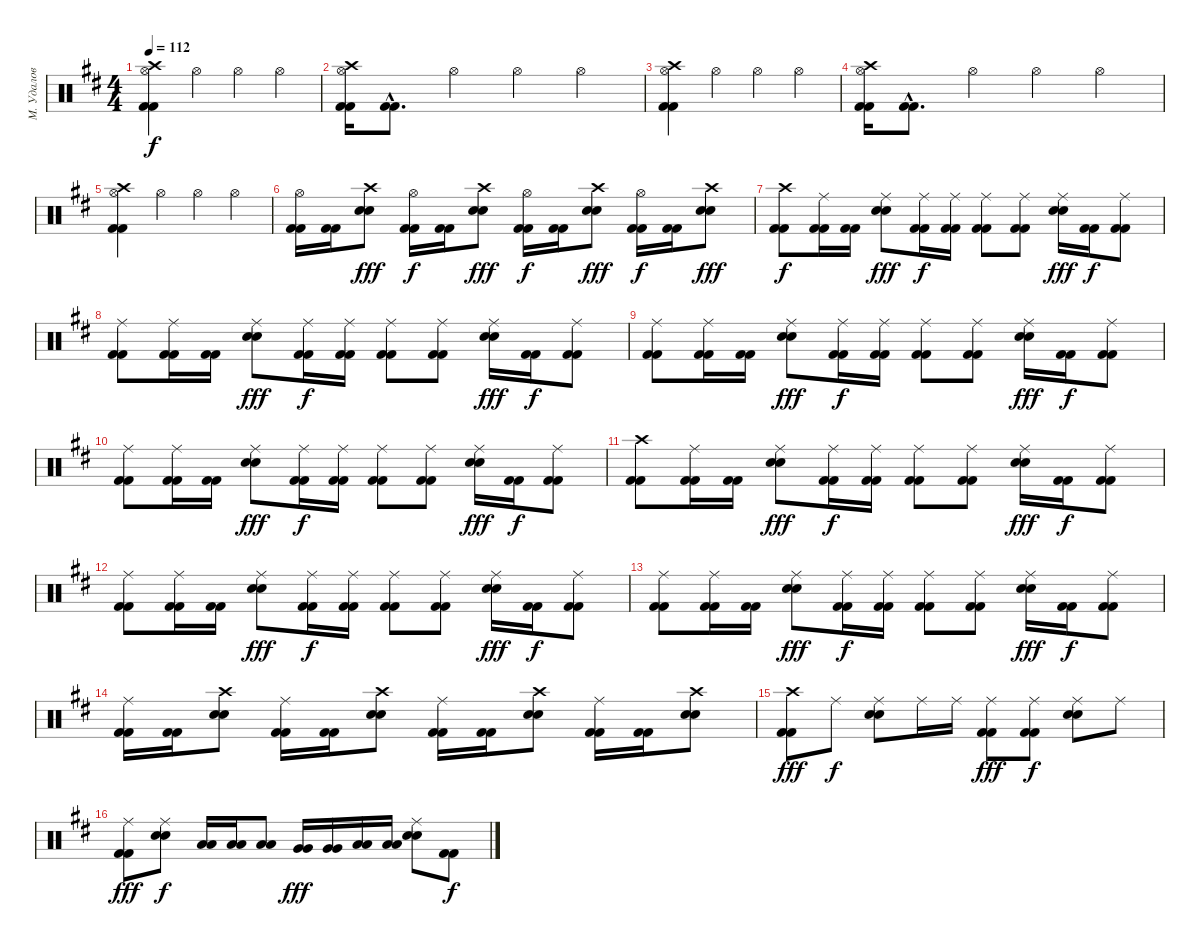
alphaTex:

\track ("М. Удалов" "М. Удалов") {instrument percussion}
\staff {score}
\articulation defaults
\ts (4 4)
\tempo 112
\clef neutral
\ks d
("Crash high (hit)" "Hi-Hat (open)" "Kick (hit) 2" "Kick (hit) 2").4{dy f} "Hi-Hat (open)".4 "Hi-Hat (open)".4 "Hi-Hat (open)".4 |
("Crash high (hit)" "Hi-Hat (open)" "Kick (hit) 2" "Kick (hit) 2").16 ("Kick (hit) 2"{hac} "Kick (hit) 2"{hac}).8{d} "Hi-Hat (open)".4 "Hi-Hat (open)".4 "Hi-Hat (open)".4 |
("Crash high (hit)" "Hi-Hat (open)" "Kick (hit) 2" "Kick (hit) 2").4 "Hi-Hat (open)".4 "Hi-Hat (open)".4 "Hi-Hat (open)".4 |
("Crash high (hit)" "Hi-Hat (open)" "Kick (hit) 2" "Kick (hit) 2").16 ("Kick (hit) 2"{hac} "Kick (hit) 2"{hac}).8{d} "Hi-Hat (open)".4 "Hi-Hat (open)".4 "Hi-Hat (open)".4 |
("Crash high (hit)" "Hi-Hat (open)" "Kick (hit) 2" "Kick (hit) 2").4 "Hi-Hat (open)".4 "Hi-Hat (open)".4 "Hi-Hat (open)".4 |
("Hi-Hat (open)" "Kick (hit) 2" "Kick (hit) 2").16 ("Kick (hit) 2" "Kick (hit) 2").16 ("Crash high (hit)" "Electric Snare (hit)" "Electric Snare (hit)").8{dy fff} ("Hi-Hat (open)" "Kick (hit) 2" "Kick (hit) 2").16{dy f} ("Kick (hit) 2" "Kick (hit) 2").16 ("Crash high (hit)" "Electric Snare (hit)" "Electric Snare (hit)").8{dy fff} ("Hi-Hat (open)" "Kick (hit) 2" "Kick (hit) 2").16{dy f} ("Kick (hit) 2" "Kick (hit) 2").16 ("Crash high (hit)" "Electric Snare (hit)" "Electric Snare (hit)").8{dy fff} ("Hi-Hat (open)" "Kick (hit) 2" "Kick (hit) 2").16{dy f} ("Kick (hit) 2" "Kick (hit) 2").16 ("Crash high (hit)" "Electric Snare (hit)" "Electric Snare (hit)").8{dy fff} |
("Crash high (hit)" "Kick (hit) 2" "Kick (hit) 2").8{dy f} ("Ride (middle)" "Kick (hit) 2" "Kick (hit) 2").16 ("Kick (hit) 2" "Kick (hit) 2").16 ("Ride (middle)" "Electric Snare (hit)" "Electric Snare (hit)").8{dy fff} ("Ride (middle)" "Kick (hit) 2" "Kick (hit) 2").16{dy f} ("Ride (middle)" "Kick (hit) 2" "Kick (hit) 2").16 ("Ride (middle)" "Kick (hit) 2" "Kick (hit) 2").8 ("Ride (middle)" "Kick (hit) 2" "Kick (hit) 2").8 ("Ride (middle)" "Electric Snare (hit)" "Electric Snare (hit)").16{dy fff} ("Kick (hit) 2" "Kick (hit) 2").16{dy f} ("Ride (middle)" "Kick (hit) 2" "Kick (hit) 2").8 |
("Ride (middle)" "Kick (hit) 2" "Kick (hit) 2").8 ("Ride (middle)" "Kick (hit) 2" "Kick (hit) 2").16 ("Kick (hit) 2" "Kick (hit) 2").16 ("Ride (middle)" "Electric Snare (hit)" "Electric Snare (hit)").8{dy fff} ("Ride (middle)" "Kick (hit) 2" "Kick (hit) 2").16{dy f} ("Ride (middle)" "Kick (hit) 2" "Kick (hit) 2").16 ("Ride (middle)" "Kick (hit) 2" "Kick (hit) 2").8 ("Ride (middle)" "Kick (hit) 2" "Kick (hit) 2").8 ("Ride (middle)" "Electric Snare (hit)" "Electric Snare (hit)").16{dy fff} ("Kick (hit) 2" "Kick (hit) 2").16{dy f} ("Ride (middle)" "Kick (hit) 2" "Kick (hit) 2").8 |
("Ride (middle)" "Kick (hit) 2" "Kick (hit) 2").8 ("Ride (middle)" "Kick (hit) 2" "Kick (hit) 2").16 ("Kick (hit) 2" "Kick (hit) 2").16 ("Ride (middle)" "Electric Snare (hit)" "Electric Snare (hit)").8{dy fff} ("Ride (middle)" "Kick (hit) 2" "Kick (hit) 2").16{dy f} ("Ride (middle)" "Kick (hit) 2" "Kick (hit) 2").16 ("Ride (middle)" "Kick (hit) 2" "Kick (hit) 2").8 ("Ride (middle)" "Kick (hit) 2" "Kick (hit) 2").8 ("Ride (middle)" "Electric Snare (hit)" "Electric Snare (hit)").16{dy fff} ("Kick (hit) 2" "Kick (hit) 2").16{dy f} ("Ride (middle)" "Kick (hit) 2" "Kick (hit) 2").8 |
("Ride (middle)" "Kick (hit) 2" "Kick (hit) 2").8 ("Ride (middle)" "Kick (hit) 2" "Kick (hit) 2").16 ("Kick (hit) 2" "Kick (hit) 2").16 ("Ride (middle)" "Electric Snare (hit)" "Electric Snare (hit)").8{dy fff} ("Ride (middle)" "Kick (hit) 2" "Kick (hit) 2").16{dy f} ("Ride (middle)" "Kick (hit) 2" "Kick (hit) 2").16 ("Ride (middle)" "Kick (hit) 2" "Kick (hit) 2").8 ("Ride (middle)" "Kick (hit) 2" "Kick (hit) 2").8 ("Ride (middle)" "Electric Snare (hit)" "Electric Snare (hit)").16{dy fff} ("Kick (hit) 2" "Kick (hit) 2").16{dy f} ("Ride (middle)" "Kick (hit) 2" "Kick (hit) 2").8 |
("Crash high (hit)" "Kick (hit) 2" "Kick (hit) 2").8 ("Ride (middle)" "Kick (hit) 2" "Kick (hit) 2").16 ("Kick (hit) 2" "Kick (hit) 2").16 ("Ride (middle)" "Electric Snare (hit)" "Electric Snare (hit)").8{dy fff} ("Ride (middle)" "Kick (hit) 2" "Kick (hit) 2").16{dy f} ("Ride (middle)" "Kick (hit) 2" "Kick (hit) 2").16 ("Ride (middle)" "Kick (hit) 2" "Kick (hit) 2").8 ("Ride (middle)" "Kick (hit) 2" "Kick (hit) 2").8 ("Ride (middle)" "Electric Snare (hit)" "Electric Snare (hit)").16{dy fff} ("Kick (hit) 2" "Kick (hit) 2").16{dy f} ("Ride (middle)" "Kick (hit) 2" "Kick (hit) 2").8 |
("Ride (middle)" "Kick (hit) 2" "Kick (hit) 2").8 ("Ride (middle)" "Kick (hit) 2" "Kick (hit) 2").16 ("Kick (hit) 2" "Kick (hit) 2").16 ("Ride (middle)" "Electric Snare (hit)" "Electric Snare (hit)").8{dy fff} ("Ride (middle)" "Kick (hit) 2" "Kick (hit) 2").16{dy f} ("Ride (middle)" "Kick (hit) 2" "Kick (hit) 2").16 ("Ride (middle)" "Kick (hit) 2" "Kick (hit) 2").8 ("Ride (middle)" "Kick (hit) 2" "Kick (hit) 2").8 ("Ride (middle)" "Electric Snare (hit)" "Electric Snare (hit)").16{dy fff} ("Kick (hit) 2" "Kick (hit) 2").16{dy f} ("Ride (middle)" "Kick (hit) 2" "Kick (hit) 2").8 |
("Ride (middle)" "Kick (hit) 2" "Kick (hit) 2").8 ("Ride (middle)" "Kick (hit) 2" "Kick (hit) 2").16 ("Kick (hit) 2" "Kick (hit) 2").16 ("Ride (middle)" "Electric Snare (hit)" "Electric Snare (hit)").8{dy fff} ("Ride (middle)" "Kick (hit) 2" "Kick (hit) 2").16{dy f} ("Ride (middle)" "Kick (hit) 2" "Kick (hit) 2").16 ("Ride (middle)" "Kick (hit) 2" "Kick (hit) 2").8 ("Ride (middle)" "Kick (hit) 2" "Kick (hit) 2").8 ("Ride (middle)" "Electric Snare (hit)" "Electric Snare (hit)").16{dy fff} ("Kick (hit) 2" "Kick (hit) 2").16{dy f} ("Ride (middle)" "Kick (hit) 2" "Kick (hit) 2").8 |
("Ride (middle)" "Kick (hit) 2" "Kick (hit) 2").16 ("Kick (hit) 2" "Kick (hit) 2").16 ("Crash high (hit)" "Electric Snare (hit)" "Electric Snare (hit)").8 ("Ride (middle)" "Kick (hit) 2" "Kick (hit) 2").16 ("Kick (hit) 2" "Kick (hit) 2").16 ("Crash high (hit)" "Electric Snare (hit)" "Electric Snare (hit)").8 ("Ride (middle)" "Kick (hit) 2" "Kick (hit) 2").16 ("Kick (hit) 2" "Kick (hit) 2").16 ("Crash high (hit)" "Electric Snare (hit)" "Electric Snare (hit)").8 ("Ride (middle)" "Kick (hit) 2" "Kick (hit) 2").16 ("Kick (hit) 2" "Kick (hit) 2").16 ("Crash high (hit)" "Electric Snare (hit)" "Electric Snare (hit)").8 |
("Crash high (hit)" "Kick (hit) 2" "Kick (hit) 2").8{dy fff} "Ride (middle)".8{dy f} ("Ride (middle)" "Electric Snare (hit)" "Electric Snare (hit)").8 "Ride (middle)".16 "Ride (middle)".16 ("Ride (middle)" "Kick (hit) 2" "Kick (hit) 2").8{dy fff} ("Ride (middle)" "Kick (hit) 2" "Kick (hit) 2").8{dy f} ("Ride (middle)" "Electric Snare (hit)" "Electric Snare (hit)").8 "Ride (middle)".8 |
("Ride (middle)" "Kick (hit) 2" "Kick (hit) 2").8{dy fff} ("Ride (middle)" "Electric Snare (hit)" "Electric Snare (hit)").8{dy f} ("Low Tom (hit)" "Low Tom (hit)").16 ("Low Tom (hit)" "Low Tom (hit)").16 ("Low Tom (hit)" "Low Tom (hit)").8 ("Very Low Tom (hit)" "Very Low Tom (hit)").16{dy fff} ("Very Low Tom (hit)" "Very Low Tom (hit)").16 ("Low Tom (hit)" "Low Tom (hit)").16 ("Low Tom (hit)" "Low Tom (hit)").16 ("Ride (middle)" "Electric Snare (hit)" "Electric Snare (hit)").8 ("Kick (hit) 2" "Kick (hit) 2").8{dy f}
